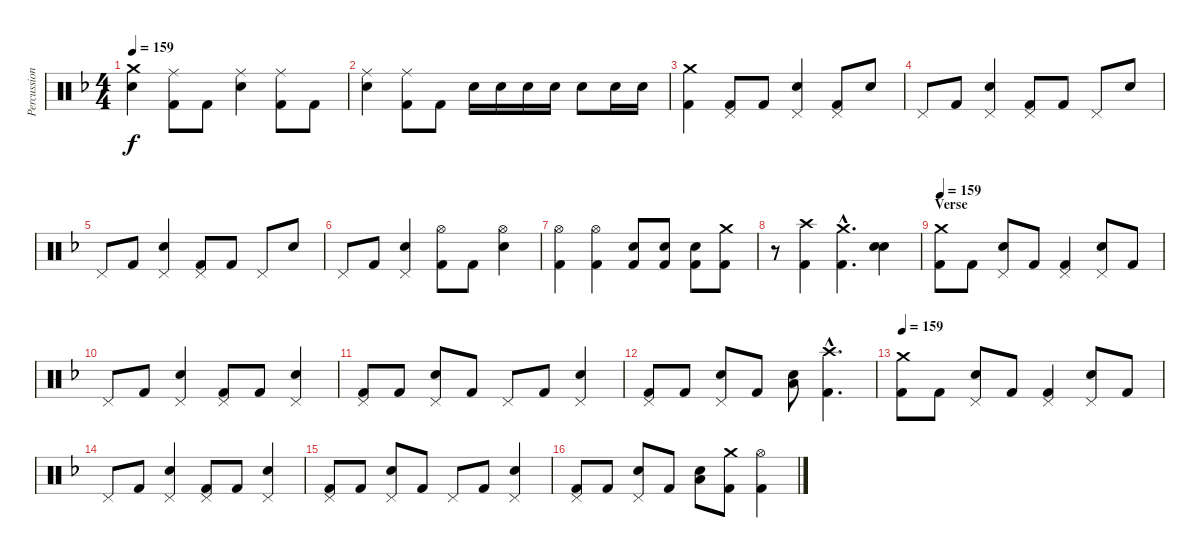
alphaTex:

\track ("Percussion" "Percussion") {instrument percussion}
\staff {score}
\articulation defaults
\ts (4 4)
\tempo 159
\clef neutral
\ks f
("Crash medium (hit)" "Electric Snare (hit)").4{dy f} ("Ride (middle)" "Kick (hit) 2").8 "Kick (hit) 2".8 ("Ride (middle)" "Electric Snare (hit)").4 ("Ride (middle)" "Kick (hit) 2").8 "Kick (hit) 2".8 |
("Ride (middle)" "Electric Snare (hit)").4 ("Ride (middle)" "Kick (hit) 2").8 "Kick (hit) 2".8 "Electric Snare (hit)".16 "Electric Snare (hit)".16 "Electric Snare (hit)".16 "Electric Snare (hit)".16 "Electric Snare (hit)".8 "Electric Snare (hit)".16 "Electric Snare (hit)".16 |
("Crash medium (hit)" "Kick (hit) 2").4 ("Pedal Hi-Hat (hit)" "Kick (hit) 2").8 "Kick (hit) 2".8 ("Pedal Hi-Hat (hit)" "Electric Snare (hit)").4 ("Pedal Hi-Hat (hit)" "Kick (hit) 2").8 "Electric Snare (hit)".8 |
"Pedal Hi-Hat (hit)".8 "Kick (hit) 2".8 ("Pedal Hi-Hat (hit)" "Electric Snare (hit)").4 ("Pedal Hi-Hat (hit)" "Kick (hit) 2").8 "Kick (hit) 2".8 "Pedal Hi-Hat (hit)".8 "Electric Snare (hit)".8 |
"Pedal Hi-Hat (hit)".8 "Kick (hit) 2".8 ("Pedal Hi-Hat (hit)" "Electric Snare (hit)").4 ("Pedal Hi-Hat (hit)" "Kick (hit) 2").8 "Kick (hit) 2".8 "Pedal Hi-Hat (hit)".8 "Electric Snare (hit)".8 |
"Pedal Hi-Hat (hit)".8 "Kick (hit) 2".8 ("Pedal Hi-Hat (hit)" "Electric Snare (hit)").4 ("Hi-Hat (open)" "Kick (hit) 2").8 "Kick (hit) 2".8 ("Hi-Hat (open)" "Electric Snare (hit)").4 |
("Hi-Hat (open)" "Kick (hit) 2").4 ("Hi-Hat (open)" "Kick (hit) 2").4 ("Electric Snare (hit)" "Kick (hit) 2").8 ("Electric Snare (hit)" "Kick (hit) 2").8 ("Electric Snare (hit)" "Kick (hit) 2").8 ("Crash medium (hit)" "Kick (hit) 2").8 |
r.8 ("Crash high (hit)" "Kick (hit) 2").4 ("Crash medium (hit)"{hac} "Kick (hit) 2"{hac}).4{d} ("Electric Snare (hit)" "Electric Snare (hit)").4 |
\section ("" "Verse")
\tempo 159
("Crash medium (hit)" "Kick (hit) 2").8 "Kick (hit) 2".8 ("Pedal Hi-Hat (hit)" "Electric Snare (hit)").8 "Kick (hit) 2".8 ("Pedal Hi-Hat (hit)" "Kick (hit) 2").4 ("Pedal Hi-Hat (hit)" "Electric Snare (hit)").8 "Kick (hit) 2".8 |
"Pedal Hi-Hat (hit)".8 "Kick (hit) 2".8 ("Pedal Hi-Hat (hit)" "Electric Snare (hit)").4 ("Pedal Hi-Hat (hit)" "Kick (hit) 2").8 "Kick (hit) 2".8 ("Pedal Hi-Hat (hit)" "Electric Snare (hit)").4 |
("Pedal Hi-Hat (hit)" "Kick (hit) 2").8 "Kick (hit) 2".8 ("Pedal Hi-Hat (hit)" "Electric Snare (hit)").8 "Kick (hit) 2".8 "Pedal Hi-Hat (hit)".8 "Kick (hit) 2".8 ("Pedal Hi-Hat (hit)" "Electric Snare (hit)").4 |
("Pedal Hi-Hat (hit)" "Kick (hit) 2").8 "Kick (hit) 2".8 ("Pedal Hi-Hat (hit)" "Electric Snare (hit)").8 "Kick (hit) 2".8 ("Low Tom (hit)" "Electric Snare (hit)").8 ("Crash high (hit)"{hac} "Kick (hit) 2"{hac}).4{d} |
\tempo 159
("Crash medium (hit)" "Kick (hit) 2").8 "Kick (hit) 2".8 ("Pedal Hi-Hat (hit)" "Electric Snare (hit)").8 "Kick (hit) 2".8 ("Pedal Hi-Hat (hit)" "Kick (hit) 2").4 ("Pedal Hi-Hat (hit)" "Electric Snare (hit)").8 "Kick (hit) 2".8 |
"Pedal Hi-Hat (hit)".8 "Kick (hit) 2".8 ("Pedal Hi-Hat (hit)" "Electric Snare (hit)").4 ("Pedal Hi-Hat (hit)" "Kick (hit) 2").8 "Kick (hit) 2".8 ("Pedal Hi-Hat (hit)" "Electric Snare (hit)").4 |
("Pedal Hi-Hat (hit)" "Kick (hit) 2").8 "Kick (hit) 2".8 ("Pedal Hi-Hat (hit)" "Electric Snare (hit)").8 "Kick (hit) 2".8 "Pedal Hi-Hat (hit)".8 "Kick (hit) 2".8 ("Pedal Hi-Hat (hit)" "Electric Snare (hit)").4 |
("Pedal Hi-Hat (hit)" "Kick (hit) 2").8 "Kick (hit) 2".8 ("Pedal Hi-Hat (hit)" "Electric Snare (hit)").8 "Kick (hit) 2".8 ("Low Tom (hit)" "Electric Snare (hit)").8 ("Crash medium (hit)" "Kick (hit) 2").8 ("Hi-Hat (open)" "Kick (hit) 2").4
